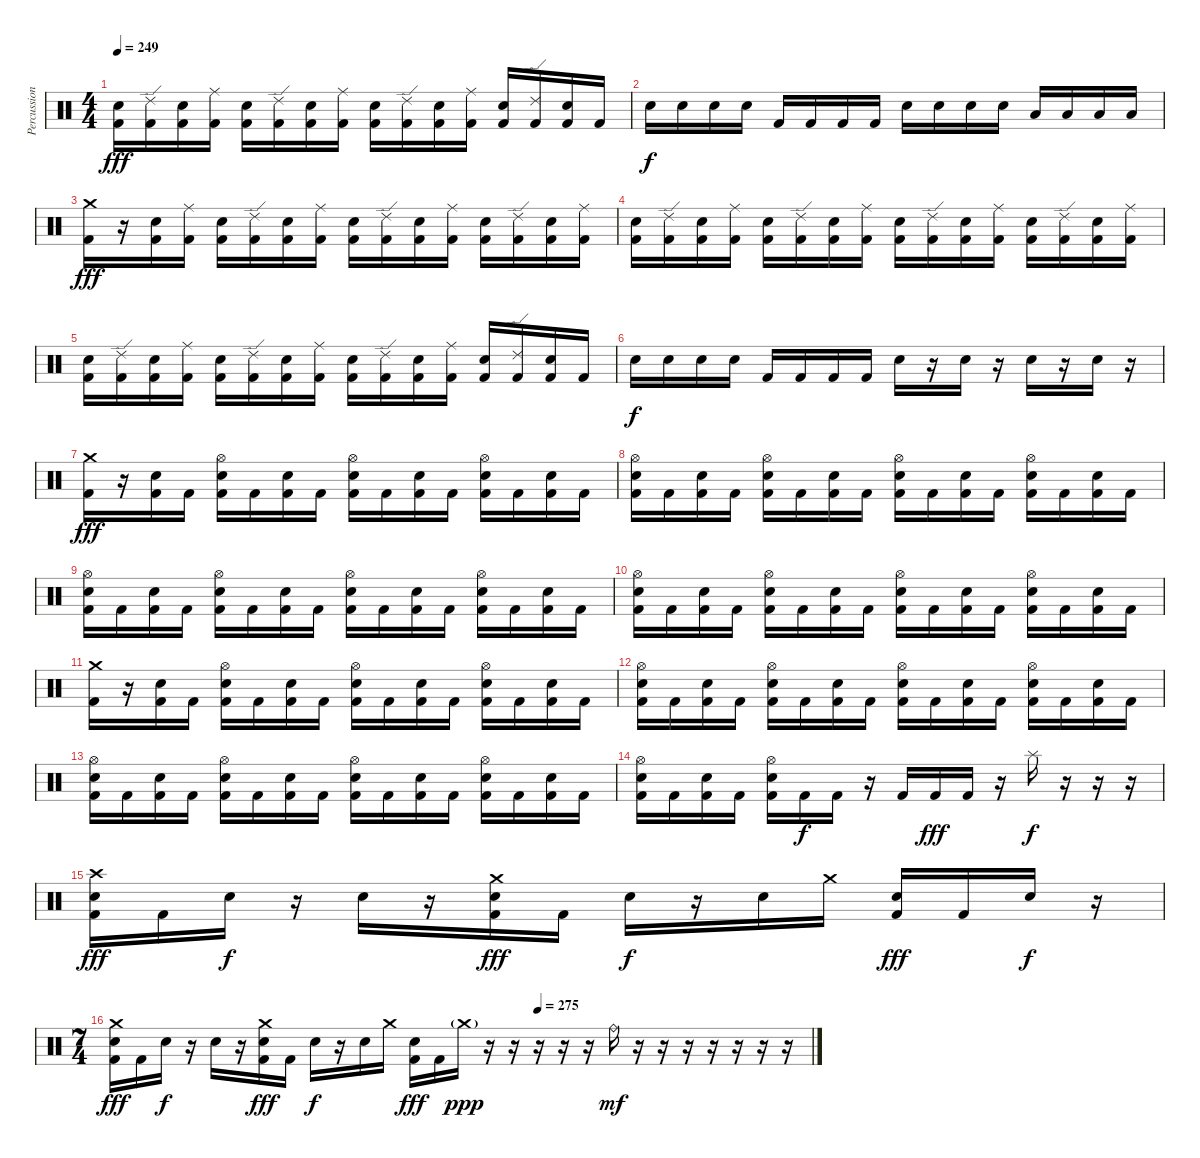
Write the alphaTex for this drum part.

\track ("Percussion" "Percussion") {instrument percussion}
\staff {score}
\articulation defaults
\ts (4 4)
\tempo 249
\clef neutral
\ks c
("Electric Snare (hit)" "Kick (hit) 2").16{dy fff} ("Ride (edge) 2" "Kick (hit) 2").16 ("Electric Snare (hit)" "Kick (hit) 2").16 ("Ride (middle)" "Kick (hit) 2").16 ("Electric Snare (hit)" "Kick (hit) 2").16 ("Ride (edge) 2" "Kick (hit) 2").16 ("Electric Snare (hit)" "Kick (hit) 2").16 ("Ride (middle)" "Kick (hit) 2").16 ("Electric Snare (hit)" "Kick (hit) 2").16 ("Ride (edge) 2" "Kick (hit) 2").16 ("Electric Snare (hit)" "Kick (hit) 2").16 ("Ride (middle)" "Kick (hit) 2").16 ("Electric Snare (hit)" "Kick (hit) 2").16 ("Ride (edge) 2" "Kick (hit) 2").16 ("Electric Snare (hit)" "Kick (hit) 2").16 "Kick (hit) 2".16 |
"Electric Snare (hit)".16{dy f} "Electric Snare (hit)".16 "Electric Snare (hit)".16 "Electric Snare (hit)".16 "Kick (hit) 2".16 "Kick (hit) 2".16 "Kick (hit) 2".16 "Kick (hit) 2".16 "Electric Snare (hit)".16 "Electric Snare (hit)".16 "Electric Snare (hit)".16 "Electric Snare (hit)".16 "Low Tom (hit)".16 "Low Tom (hit)".16 "Low Tom (hit)".16 "Low Tom (hit)".16 |
("Crash medium (hit)" "Kick (hit) 2").16{dy fff} r.16 ("Electric Snare (hit)" "Kick (hit) 2").16 ("Ride (middle)" "Kick (hit) 2").16 ("Electric Snare (hit)" "Kick (hit) 2").16 ("Ride (edge) 2" "Kick (hit) 2").16 ("Electric Snare (hit)" "Kick (hit) 2").16 ("Ride (middle)" "Kick (hit) 2").16 ("Electric Snare (hit)" "Kick (hit) 2").16 ("Ride (edge) 2" "Kick (hit) 2").16 ("Electric Snare (hit)" "Kick (hit) 2").16 ("Ride (middle)" "Kick (hit) 2").16 ("Electric Snare (hit)" "Kick (hit) 2").16 ("Ride (edge) 2" "Kick (hit) 2").16 ("Electric Snare (hit)" "Kick (hit) 2").16 ("Ride (middle)" "Kick (hit) 2").16 |
("Electric Snare (hit)" "Kick (hit) 2").16 ("Ride (edge) 2" "Kick (hit) 2").16 ("Electric Snare (hit)" "Kick (hit) 2").16 ("Ride (middle)" "Kick (hit) 2").16 ("Electric Snare (hit)" "Kick (hit) 2").16 ("Ride (edge) 2" "Kick (hit) 2").16 ("Electric Snare (hit)" "Kick (hit) 2").16 ("Ride (middle)" "Kick (hit) 2").16 ("Electric Snare (hit)" "Kick (hit) 2").16 ("Ride (edge) 2" "Kick (hit) 2").16 ("Electric Snare (hit)" "Kick (hit) 2").16 ("Ride (middle)" "Kick (hit) 2").16 ("Electric Snare (hit)" "Kick (hit) 2").16 ("Ride (edge) 2" "Kick (hit) 2").16 ("Electric Snare (hit)" "Kick (hit) 2").16 ("Ride (middle)" "Kick (hit) 2").16 |
("Electric Snare (hit)" "Kick (hit) 2").16 ("Ride (edge) 2" "Kick (hit) 2").16 ("Electric Snare (hit)" "Kick (hit) 2").16 ("Ride (middle)" "Kick (hit) 2").16 ("Electric Snare (hit)" "Kick (hit) 2").16 ("Ride (edge) 2" "Kick (hit) 2").16 ("Electric Snare (hit)" "Kick (hit) 2").16 ("Ride (middle)" "Kick (hit) 2").16 ("Electric Snare (hit)" "Kick (hit) 2").16 ("Ride (edge) 2" "Kick (hit) 2").16 ("Electric Snare (hit)" "Kick (hit) 2").16 ("Ride (middle)" "Kick (hit) 2").16 ("Electric Snare (hit)" "Kick (hit) 2").16 ("Ride (edge) 2" "Kick (hit) 2").16 ("Electric Snare (hit)" "Kick (hit) 2").16 "Kick (hit) 2".16 |
"Electric Snare (hit)".16{dy f} "Electric Snare (hit)".16 "Electric Snare (hit)".16 "Electric Snare (hit)".16 "Kick (hit) 2".16 "Kick (hit) 2".16 "Kick (hit) 2".16 "Kick (hit) 2".16 "Electric Snare (hit)".16 r.16 "Electric Snare (hit)".16 r.16 "Electric Snare (hit)".16 r.16 "Electric Snare (hit)".16 r.16 |
("Crash medium (hit)" "Kick (hit) 2").16{dy fff} r.16 ("Electric Snare (hit)" "Kick (hit) 2").16 "Kick (hit) 2".16 ("Hi-Hat (open)" "Electric Snare (hit)" "Kick (hit) 2").16 "Kick (hit) 2".16 ("Electric Snare (hit)" "Kick (hit) 2").16 "Kick (hit) 2".16 ("Hi-Hat (open)" "Electric Snare (hit)" "Kick (hit) 2").16 "Kick (hit) 2".16 ("Electric Snare (hit)" "Kick (hit) 2").16 "Kick (hit) 2".16 ("Hi-Hat (open)" "Electric Snare (hit)" "Kick (hit) 2").16 "Kick (hit) 2".16 ("Electric Snare (hit)" "Kick (hit) 2").16 "Kick (hit) 2".16 |
("Hi-Hat (open)" "Electric Snare (hit)" "Kick (hit) 2").16 "Kick (hit) 2".16 ("Electric Snare (hit)" "Kick (hit) 2").16 "Kick (hit) 2".16 ("Hi-Hat (open)" "Electric Snare (hit)" "Kick (hit) 2").16 "Kick (hit) 2".16 ("Electric Snare (hit)" "Kick (hit) 2").16 "Kick (hit) 2".16 ("Hi-Hat (open)" "Electric Snare (hit)" "Kick (hit) 2").16 "Kick (hit) 2".16 ("Electric Snare (hit)" "Kick (hit) 2").16 "Kick (hit) 2".16 ("Hi-Hat (open)" "Electric Snare (hit)" "Kick (hit) 2").16 "Kick (hit) 2".16 ("Electric Snare (hit)" "Kick (hit) 2").16 "Kick (hit) 2".16 |
("Hi-Hat (open)" "Electric Snare (hit)" "Kick (hit) 2").16 "Kick (hit) 2".16 ("Electric Snare (hit)" "Kick (hit) 2").16 "Kick (hit) 2".16 ("Hi-Hat (open)" "Electric Snare (hit)" "Kick (hit) 2").16 "Kick (hit) 2".16 ("Electric Snare (hit)" "Kick (hit) 2").16 "Kick (hit) 2".16 ("Hi-Hat (open)" "Electric Snare (hit)" "Kick (hit) 2").16 "Kick (hit) 2".16 ("Electric Snare (hit)" "Kick (hit) 2").16 "Kick (hit) 2".16 ("Hi-Hat (open)" "Electric Snare (hit)" "Kick (hit) 2").16 "Kick (hit) 2".16 ("Electric Snare (hit)" "Kick (hit) 2").16 "Kick (hit) 2".16 |
("Hi-Hat (open)" "Electric Snare (hit)" "Kick (hit) 2").16 "Kick (hit) 2".16 ("Electric Snare (hit)" "Kick (hit) 2").16 "Kick (hit) 2".16 ("Hi-Hat (open)" "Electric Snare (hit)" "Kick (hit) 2").16 "Kick (hit) 2".16 ("Electric Snare (hit)" "Kick (hit) 2").16 "Kick (hit) 2".16 ("Hi-Hat (open)" "Electric Snare (hit)" "Kick (hit) 2").16 "Kick (hit) 2".16 ("Electric Snare (hit)" "Kick (hit) 2").16 "Kick (hit) 2".16 ("Hi-Hat (open)" "Electric Snare (hit)" "Kick (hit) 2").16 "Kick (hit) 2".16 ("Electric Snare (hit)" "Kick (hit) 2").16 "Kick (hit) 2".16 |
("Crash medium (hit)" "Kick (hit) 2").16 r.16 ("Electric Snare (hit)" "Kick (hit) 2").16 "Kick (hit) 2".16 ("Hi-Hat (open)" "Electric Snare (hit)" "Kick (hit) 2").16 "Kick (hit) 2".16 ("Electric Snare (hit)" "Kick (hit) 2").16 "Kick (hit) 2".16 ("Hi-Hat (open)" "Electric Snare (hit)" "Kick (hit) 2").16 "Kick (hit) 2".16 ("Electric Snare (hit)" "Kick (hit) 2").16 "Kick (hit) 2".16 ("Hi-Hat (open)" "Electric Snare (hit)" "Kick (hit) 2").16 "Kick (hit) 2".16 ("Electric Snare (hit)" "Kick (hit) 2").16 "Kick (hit) 2".16 |
("Hi-Hat (open)" "Electric Snare (hit)" "Kick (hit) 2").16 "Kick (hit) 2".16 ("Electric Snare (hit)" "Kick (hit) 2").16 "Kick (hit) 2".16 ("Hi-Hat (open)" "Electric Snare (hit)" "Kick (hit) 2").16 "Kick (hit) 2".16 ("Electric Snare (hit)" "Kick (hit) 2").16 "Kick (hit) 2".16 ("Hi-Hat (open)" "Electric Snare (hit)" "Kick (hit) 2").16 "Kick (hit) 2".16 ("Electric Snare (hit)" "Kick (hit) 2").16 "Kick (hit) 2".16 ("Hi-Hat (open)" "Electric Snare (hit)" "Kick (hit) 2").16 "Kick (hit) 2".16 ("Electric Snare (hit)" "Kick (hit) 2").16 "Kick (hit) 2".16 |
("Hi-Hat (open)" "Electric Snare (hit)" "Kick (hit) 2").16 "Kick (hit) 2".16 ("Electric Snare (hit)" "Kick (hit) 2").16 "Kick (hit) 2".16 ("Hi-Hat (open)" "Electric Snare (hit)" "Kick (hit) 2").16 "Kick (hit) 2".16 ("Electric Snare (hit)" "Kick (hit) 2").16 "Kick (hit) 2".16 ("Hi-Hat (open)" "Electric Snare (hit)" "Kick (hit) 2").16 "Kick (hit) 2".16 ("Electric Snare (hit)" "Kick (hit) 2").16 "Kick (hit) 2".16 ("Hi-Hat (open)" "Electric Snare (hit)" "Kick (hit) 2").16 "Kick (hit) 2".16 ("Electric Snare (hit)" "Kick (hit) 2").16 "Kick (hit) 2".16 |
("Hi-Hat (open)" "Electric Snare (hit)" "Kick (hit) 2").16 "Kick (hit) 2".16 ("Electric Snare (hit)" "Kick (hit) 2").16 "Kick (hit) 2".16 ("Hi-Hat (open)" "Electric Snare (hit)" "Kick (hit) 2").16 "Kick (hit) 2".16{dy f} "Kick (hit) 2".16 r.16 "Kick (hit) 2".16 "Kick (hit) 2".16{dy fff} "Kick (hit) 2".16 r.16 "Splash (hit)".16{dy f} r.16 r.16 r.16 |
("Crash high (hit)" "Electric Snare (hit)" "Kick (hit) 2").16{dy fff} "Kick (hit) 2".16 "Electric Snare (hit)".16{dy f} r.16 "Electric Snare (hit)".16 r.16 ("Crash medium (hit)" "Electric Snare (hit)" "Kick (hit) 2").16{dy fff} "Kick (hit) 2".16 "Electric Snare (hit)".16{dy f} r.16 "Electric Snare (hit)".16 "Crash medium (hit)".16 ("Electric Snare (hit)" "Kick (hit) 2").16{dy fff} "Kick (hit) 2".16 "Electric Snare (hit)".16{dy f} r.16 |
\ts (7 4)
\tempo (275 0.6071428571428571)
("Crash medium (hit)" "Electric Snare (hit)" "Kick (hit) 2").16{dy fff} "Kick (hit) 2".16 "Electric Snare (hit)".16{dy f} r.16 "Electric Snare (hit)".16 r.16 ("Crash medium (hit)" "Electric Snare (hit)" "Kick (hit) 2").16{dy fff} "Kick (hit) 2".16 "Electric Snare (hit)".16{dy f} r.16 "Electric Snare (hit)".16 "Crash medium (hit)".16 ("Electric Snare (hit)" "Kick (hit) 2").16{dy fff} "Kick (hit) 2".16 "Crash medium (hit)"{g}.16{dy ppp} r.16 r.16 r.16 r.16 r.16 "Ride (bell)".16{dy mf} r.16 r.16 r.16 r.16 r.16 r.16 r.16
